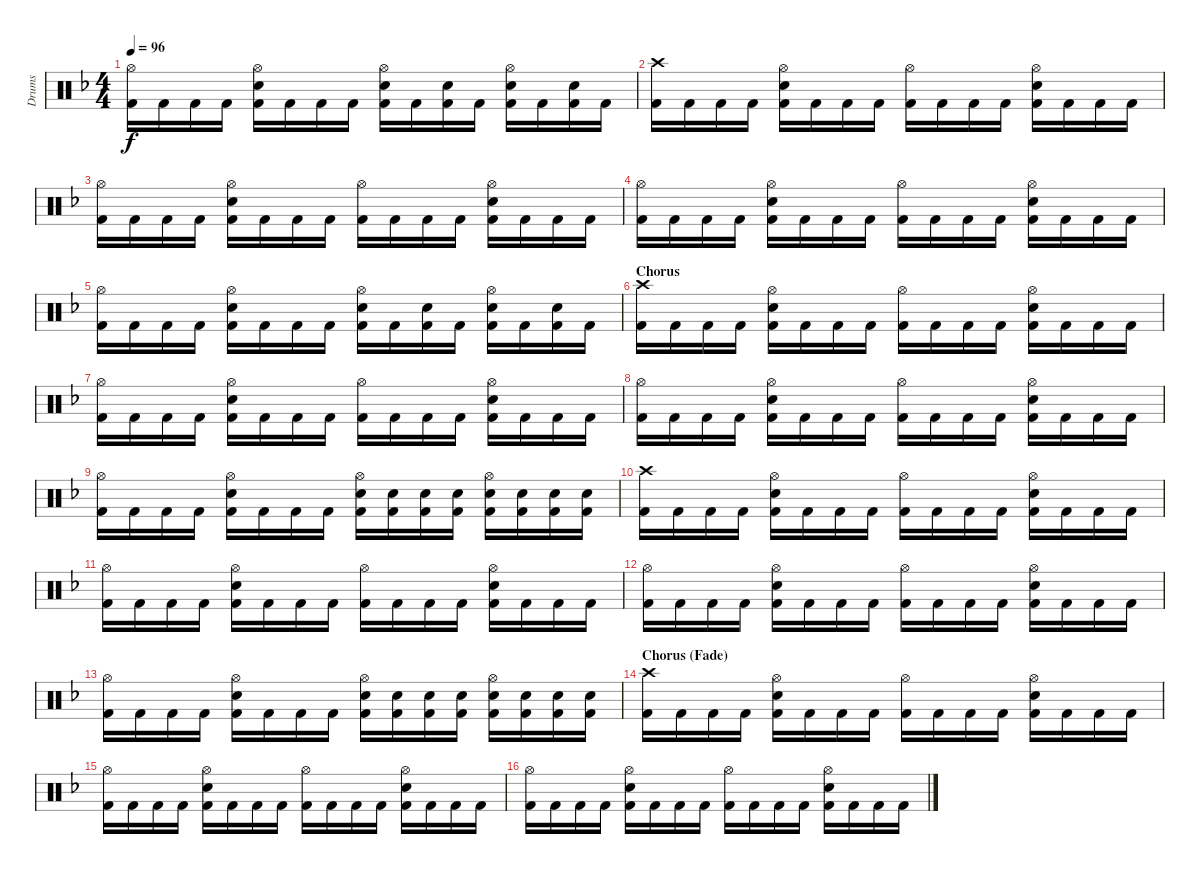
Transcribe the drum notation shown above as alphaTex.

\track ("Drums" "Drums") {instrument percussion}
\staff {score}
\articulation defaults
\ts (4 4)
\tempo 96
\clef neutral
\ks dminor
("Hi-Hat (open)" "Kick (hit) 2").16{dy f} "Kick (hit) 2".16 "Kick (hit) 2".16 "Kick (hit) 2".16 ("Hi-Hat (open)" "Snare (hit) 2" "Kick (hit) 2").16 "Kick (hit) 2".16 "Kick (hit) 2".16 "Kick (hit) 2".16 ("Hi-Hat (open)" "Snare (hit) 2" "Kick (hit) 2").16 "Kick (hit) 2".16 ("Snare (hit) 2" "Kick (hit) 2").16 "Kick (hit) 2".16 ("Hi-Hat (open)" "Snare (hit) 2" "Kick (hit) 2").16 "Kick (hit) 2".16 ("Snare (hit) 2" "Kick (hit) 2").16 "Kick (hit) 2".16 |
("Crash high (hit)" "Kick (hit) 2").16 "Kick (hit) 2".16 "Kick (hit) 2".16 "Kick (hit) 2".16 ("Hi-Hat (open)" "Snare (hit) 2" "Kick (hit) 2").16 "Kick (hit) 2".16 "Kick (hit) 2".16 "Kick (hit) 2".16 ("Hi-Hat (open)" "Kick (hit) 2").16 "Kick (hit) 2".16 "Kick (hit) 2".16 "Kick (hit) 2".16 ("Hi-Hat (open)" "Snare (hit) 2" "Kick (hit) 2").16 "Kick (hit) 2".16 "Kick (hit) 2".16 "Kick (hit) 2".16 |
("Hi-Hat (open)" "Kick (hit) 2").16 "Kick (hit) 2".16 "Kick (hit) 2".16 "Kick (hit) 2".16 ("Hi-Hat (open)" "Snare (hit) 2" "Kick (hit) 2").16 "Kick (hit) 2".16 "Kick (hit) 2".16 "Kick (hit) 2".16 ("Hi-Hat (open)" "Kick (hit) 2").16 "Kick (hit) 2".16 "Kick (hit) 2".16 "Kick (hit) 2".16 ("Hi-Hat (open)" "Snare (hit) 2" "Kick (hit) 2").16 "Kick (hit) 2".16 "Kick (hit) 2".16 "Kick (hit) 2".16 |
("Hi-Hat (open)" "Kick (hit) 2").16 "Kick (hit) 2".16 "Kick (hit) 2".16 "Kick (hit) 2".16 ("Hi-Hat (open)" "Snare (hit) 2" "Kick (hit) 2").16 "Kick (hit) 2".16 "Kick (hit) 2".16 "Kick (hit) 2".16 ("Hi-Hat (open)" "Kick (hit) 2").16 "Kick (hit) 2".16 "Kick (hit) 2".16 "Kick (hit) 2".16 ("Hi-Hat (open)" "Snare (hit) 2" "Kick (hit) 2").16 "Kick (hit) 2".16 "Kick (hit) 2".16 "Kick (hit) 2".16 |
("Hi-Hat (open)" "Kick (hit) 2").16 "Kick (hit) 2".16 "Kick (hit) 2".16 "Kick (hit) 2".16 ("Hi-Hat (open)" "Snare (hit) 2" "Kick (hit) 2").16 "Kick (hit) 2".16 "Kick (hit) 2".16 "Kick (hit) 2".16 ("Hi-Hat (open)" "Snare (hit) 2" "Kick (hit) 2").16 "Kick (hit) 2".16 ("Snare (hit) 2" "Kick (hit) 2").16 "Kick (hit) 2".16 ("Hi-Hat (open)" "Snare (hit) 2" "Kick (hit) 2").16 "Kick (hit) 2".16 ("Snare (hit) 2" "Kick (hit) 2").16 "Kick (hit) 2".16 |
\section ("" "Chorus")
("Crash high (hit)" "Kick (hit) 2").16 "Kick (hit) 2".16 "Kick (hit) 2".16 "Kick (hit) 2".16 ("Hi-Hat (open)" "Snare (hit) 2" "Kick (hit) 2").16 "Kick (hit) 2".16 "Kick (hit) 2".16 "Kick (hit) 2".16 ("Hi-Hat (open)" "Kick (hit) 2").16 "Kick (hit) 2".16 "Kick (hit) 2".16 "Kick (hit) 2".16 ("Hi-Hat (open)" "Snare (hit) 2" "Kick (hit) 2").16 "Kick (hit) 2".16 "Kick (hit) 2".16 "Kick (hit) 2".16 |
("Hi-Hat (open)" "Kick (hit) 2").16 "Kick (hit) 2".16 "Kick (hit) 2".16 "Kick (hit) 2".16 ("Hi-Hat (open)" "Snare (hit) 2" "Kick (hit) 2").16 "Kick (hit) 2".16 "Kick (hit) 2".16 "Kick (hit) 2".16 ("Hi-Hat (open)" "Kick (hit) 2").16 "Kick (hit) 2".16 "Kick (hit) 2".16 "Kick (hit) 2".16 ("Hi-Hat (open)" "Snare (hit) 2" "Kick (hit) 2").16 "Kick (hit) 2".16 "Kick (hit) 2".16 "Kick (hit) 2".16 |
("Hi-Hat (open)" "Kick (hit) 2").16 "Kick (hit) 2".16 "Kick (hit) 2".16 "Kick (hit) 2".16 ("Hi-Hat (open)" "Snare (hit) 2" "Kick (hit) 2").16 "Kick (hit) 2".16 "Kick (hit) 2".16 "Kick (hit) 2".16 ("Hi-Hat (open)" "Kick (hit) 2").16 "Kick (hit) 2".16 "Kick (hit) 2".16 "Kick (hit) 2".16 ("Hi-Hat (open)" "Snare (hit) 2" "Kick (hit) 2").16 "Kick (hit) 2".16 "Kick (hit) 2".16 "Kick (hit) 2".16 |
("Hi-Hat (open)" "Kick (hit) 2").16 "Kick (hit) 2".16 "Kick (hit) 2".16 "Kick (hit) 2".16 ("Hi-Hat (open)" "Snare (hit) 2" "Kick (hit) 2").16 "Kick (hit) 2".16 "Kick (hit) 2".16 "Kick (hit) 2".16 ("Hi-Hat (open)" "Snare (hit) 2" "Kick (hit) 2").16 ("Snare (hit) 2" "Kick (hit) 2").16 ("Snare (hit) 2" "Kick (hit) 2").16 ("Snare (hit) 2" "Kick (hit) 2").16 ("Hi-Hat (open)" "Snare (hit) 2" "Kick (hit) 2").16 ("Snare (hit) 2" "Kick (hit) 2").16 ("Snare (hit) 2" "Kick (hit) 2").16 ("Snare (hit) 2" "Kick (hit) 2").16 |
("Crash high (hit)" "Kick (hit) 2").16 "Kick (hit) 2".16 "Kick (hit) 2".16 "Kick (hit) 2".16 ("Hi-Hat (open)" "Snare (hit) 2" "Kick (hit) 2").16 "Kick (hit) 2".16 "Kick (hit) 2".16 "Kick (hit) 2".16 ("Hi-Hat (open)" "Kick (hit) 2").16 "Kick (hit) 2".16 "Kick (hit) 2".16 "Kick (hit) 2".16 ("Hi-Hat (open)" "Snare (hit) 2" "Kick (hit) 2").16 "Kick (hit) 2".16 "Kick (hit) 2".16 "Kick (hit) 2".16 |
("Hi-Hat (open)" "Kick (hit) 2").16 "Kick (hit) 2".16 "Kick (hit) 2".16 "Kick (hit) 2".16 ("Hi-Hat (open)" "Snare (hit) 2" "Kick (hit) 2").16 "Kick (hit) 2".16 "Kick (hit) 2".16 "Kick (hit) 2".16 ("Hi-Hat (open)" "Kick (hit) 2").16 "Kick (hit) 2".16 "Kick (hit) 2".16 "Kick (hit) 2".16 ("Hi-Hat (open)" "Snare (hit) 2" "Kick (hit) 2").16 "Kick (hit) 2".16 "Kick (hit) 2".16 "Kick (hit) 2".16 |
("Hi-Hat (open)" "Kick (hit) 2").16 "Kick (hit) 2".16 "Kick (hit) 2".16 "Kick (hit) 2".16 ("Hi-Hat (open)" "Snare (hit) 2" "Kick (hit) 2").16 "Kick (hit) 2".16 "Kick (hit) 2".16 "Kick (hit) 2".16 ("Hi-Hat (open)" "Kick (hit) 2").16 "Kick (hit) 2".16 "Kick (hit) 2".16 "Kick (hit) 2".16 ("Hi-Hat (open)" "Snare (hit) 2" "Kick (hit) 2").16 "Kick (hit) 2".16 "Kick (hit) 2".16 "Kick (hit) 2".16 |
("Hi-Hat (open)" "Kick (hit) 2").16 "Kick (hit) 2".16 "Kick (hit) 2".16 "Kick (hit) 2".16 ("Hi-Hat (open)" "Snare (hit) 2" "Kick (hit) 2").16 "Kick (hit) 2".16 "Kick (hit) 2".16 "Kick (hit) 2".16 ("Hi-Hat (open)" "Snare (hit) 2" "Kick (hit) 2").16 ("Snare (hit) 2" "Kick (hit) 2").16 ("Snare (hit) 2" "Kick (hit) 2").16 ("Snare (hit) 2" "Kick (hit) 2").16 ("Hi-Hat (open)" "Snare (hit) 2" "Kick (hit) 2").16 ("Snare (hit) 2" "Kick (hit) 2").16 ("Snare (hit) 2" "Kick (hit) 2").16 ("Snare (hit) 2" "Kick (hit) 2").16 |
\section ("" "Chorus (Fade)")
("Crash high (hit)" "Kick (hit) 2").16 "Kick (hit) 2".16 "Kick (hit) 2".16 "Kick (hit) 2".16 ("Hi-Hat (open)" "Snare (hit) 2" "Kick (hit) 2").16 "Kick (hit) 2".16 "Kick (hit) 2".16 "Kick (hit) 2".16 ("Hi-Hat (open)" "Kick (hit) 2").16 "Kick (hit) 2".16 "Kick (hit) 2".16 "Kick (hit) 2".16 ("Hi-Hat (open)" "Snare (hit) 2" "Kick (hit) 2").16 "Kick (hit) 2".16 "Kick (hit) 2".16 "Kick (hit) 2".16 |
("Hi-Hat (open)" "Kick (hit) 2").16 "Kick (hit) 2".16 "Kick (hit) 2".16 "Kick (hit) 2".16 ("Hi-Hat (open)" "Snare (hit) 2" "Kick (hit) 2").16 "Kick (hit) 2".16 "Kick (hit) 2".16 "Kick (hit) 2".16 ("Hi-Hat (open)" "Kick (hit) 2").16 "Kick (hit) 2".16 "Kick (hit) 2".16 "Kick (hit) 2".16 ("Hi-Hat (open)" "Snare (hit) 2" "Kick (hit) 2").16 "Kick (hit) 2".16 "Kick (hit) 2".16 "Kick (hit) 2".16 |
("Hi-Hat (open)" "Kick (hit) 2").16 "Kick (hit) 2".16 "Kick (hit) 2".16 "Kick (hit) 2".16 ("Hi-Hat (open)" "Snare (hit) 2" "Kick (hit) 2").16 "Kick (hit) 2".16 "Kick (hit) 2".16 "Kick (hit) 2".16 ("Hi-Hat (open)" "Kick (hit) 2").16 "Kick (hit) 2".16 "Kick (hit) 2".16 "Kick (hit) 2".16 ("Hi-Hat (open)" "Snare (hit) 2" "Kick (hit) 2").16 "Kick (hit) 2".16 "Kick (hit) 2".16 "Kick (hit) 2".16
